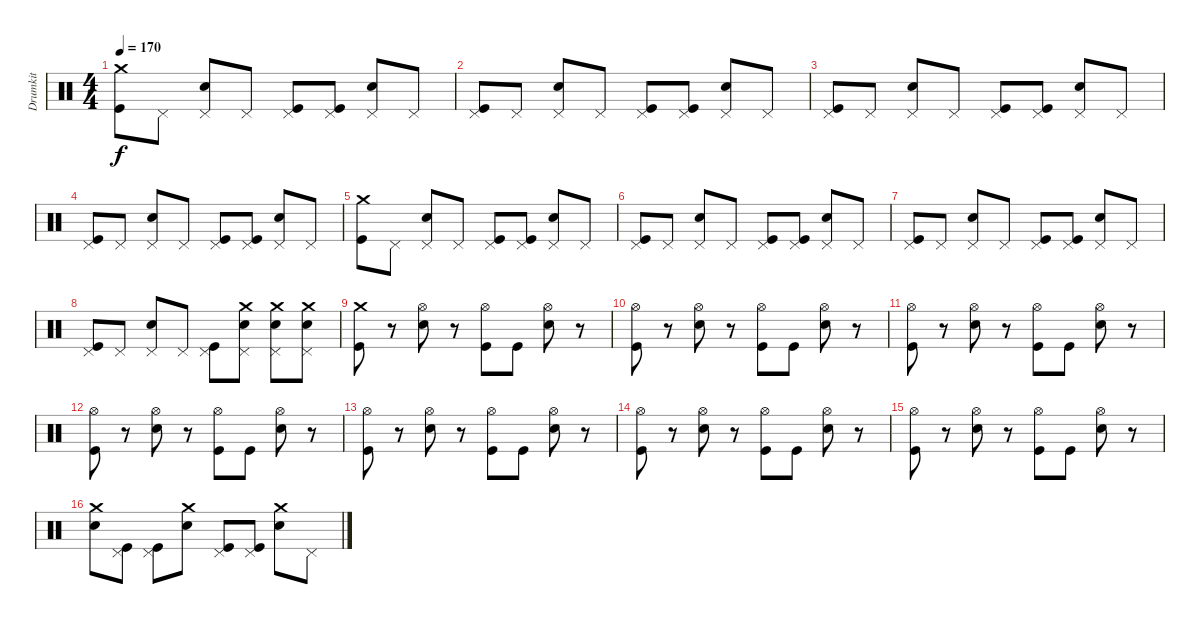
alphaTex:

\track ("Drumkit" "Drumkit") {instrument percussion}
\staff {score}
\articulation defaults
\ts (4 4)
\tempo 170
\clef neutral
\ks c
("Crash medium (hit)" "Kick (hit)").8{dy f} "Pedal Hi-Hat (hit)".8 ("Pedal Hi-Hat (hit)" "Snare (hit) 2").8 "Pedal Hi-Hat (hit)".8 ("Pedal Hi-Hat (hit)" "Kick (hit)").8 ("Pedal Hi-Hat (hit)" "Kick (hit)").8 ("Pedal Hi-Hat (hit)" "Snare (hit) 2").8 "Pedal Hi-Hat (hit)".8 |
("Pedal Hi-Hat (hit)" "Kick (hit)").8 "Pedal Hi-Hat (hit)".8 ("Pedal Hi-Hat (hit)" "Snare (hit) 2").8 "Pedal Hi-Hat (hit)".8 ("Pedal Hi-Hat (hit)" "Kick (hit)").8 ("Pedal Hi-Hat (hit)" "Kick (hit)").8 ("Pedal Hi-Hat (hit)" "Snare (hit) 2").8 "Pedal Hi-Hat (hit)".8 |
("Pedal Hi-Hat (hit)" "Kick (hit)").8 "Pedal Hi-Hat (hit)".8 ("Pedal Hi-Hat (hit)" "Snare (hit) 2").8 "Pedal Hi-Hat (hit)".8 ("Pedal Hi-Hat (hit)" "Kick (hit)").8 ("Pedal Hi-Hat (hit)" "Kick (hit)").8 ("Pedal Hi-Hat (hit)" "Snare (hit) 2").8 "Pedal Hi-Hat (hit)".8 |
("Pedal Hi-Hat (hit)" "Kick (hit)").8 "Pedal Hi-Hat (hit)".8 ("Pedal Hi-Hat (hit)" "Snare (hit) 2").8 "Pedal Hi-Hat (hit)".8 ("Pedal Hi-Hat (hit)" "Kick (hit)").8 ("Pedal Hi-Hat (hit)" "Kick (hit)").8 ("Pedal Hi-Hat (hit)" "Snare (hit) 2").8 "Pedal Hi-Hat (hit)".8 |
("Crash medium (hit)" "Kick (hit)").8 "Pedal Hi-Hat (hit)".8 ("Pedal Hi-Hat (hit)" "Snare (hit) 2").8 "Pedal Hi-Hat (hit)".8 ("Pedal Hi-Hat (hit)" "Kick (hit)").8 ("Pedal Hi-Hat (hit)" "Kick (hit)").8 ("Pedal Hi-Hat (hit)" "Snare (hit) 2").8 "Pedal Hi-Hat (hit)".8 |
("Pedal Hi-Hat (hit)" "Kick (hit)").8 "Pedal Hi-Hat (hit)".8 ("Pedal Hi-Hat (hit)" "Snare (hit) 2").8 "Pedal Hi-Hat (hit)".8 ("Pedal Hi-Hat (hit)" "Kick (hit)").8 ("Pedal Hi-Hat (hit)" "Kick (hit)").8 ("Pedal Hi-Hat (hit)" "Snare (hit) 2").8 "Pedal Hi-Hat (hit)".8 |
("Pedal Hi-Hat (hit)" "Kick (hit)").8 "Pedal Hi-Hat (hit)".8 ("Pedal Hi-Hat (hit)" "Snare (hit) 2").8 "Pedal Hi-Hat (hit)".8 ("Pedal Hi-Hat (hit)" "Kick (hit)").8 ("Pedal Hi-Hat (hit)" "Kick (hit)").8 ("Pedal Hi-Hat (hit)" "Snare (hit) 2").8 "Pedal Hi-Hat (hit)".8 |
("Pedal Hi-Hat (hit)" "Kick (hit)").8 "Pedal Hi-Hat (hit)".8 ("Pedal Hi-Hat (hit)" "Snare (hit) 2").8 "Pedal Hi-Hat (hit)".8 ("Pedal Hi-Hat (hit)" "Kick (hit)").8 ("Pedal Hi-Hat (hit)" "Crash medium (hit)" "Snare (hit) 2").8 ("Pedal Hi-Hat (hit)" "Crash medium (hit)" "Snare (hit) 2").8 ("Pedal Hi-Hat (hit)" "Crash medium (hit)" "Snare (hit) 2").8 |
("Crash medium (hit)" "Kick (hit)").8 r.8 ("Hi-Hat (open)" "Snare (hit) 2").8 r.8 ("Hi-Hat (open)" "Kick (hit)").8 "Kick (hit)".8 ("Hi-Hat (open)" "Snare (hit) 2").8 r.8 |
("Hi-Hat (open)" "Kick (hit)").8 r.8 ("Hi-Hat (open)" "Snare (hit) 2").8 r.8 ("Hi-Hat (open)" "Kick (hit)").8 "Kick (hit)".8 ("Hi-Hat (open)" "Snare (hit) 2").8 r.8 |
("Hi-Hat (open)" "Kick (hit)").8 r.8 ("Hi-Hat (open)" "Snare (hit) 2").8 r.8 ("Hi-Hat (open)" "Kick (hit)").8 "Kick (hit)".8 ("Hi-Hat (open)" "Snare (hit) 2").8 r.8 |
("Hi-Hat (open)" "Kick (hit)").8 r.8 ("Hi-Hat (open)" "Snare (hit) 2").8 r.8 ("Hi-Hat (open)" "Kick (hit)").8 "Kick (hit)".8 ("Hi-Hat (open)" "Snare (hit) 2").8 r.8 |
("Hi-Hat (open)" "Kick (hit)").8 r.8 ("Hi-Hat (open)" "Snare (hit) 2").8 r.8 ("Hi-Hat (open)" "Kick (hit)").8 "Kick (hit)".8 ("Hi-Hat (open)" "Snare (hit) 2").8 r.8 |
("Hi-Hat (open)" "Kick (hit)").8 r.8 ("Hi-Hat (open)" "Snare (hit) 2").8 r.8 ("Hi-Hat (open)" "Kick (hit)").8 "Kick (hit)".8 ("Hi-Hat (open)" "Snare (hit) 2").8 r.8 |
("Hi-Hat (open)" "Kick (hit)").8 r.8 ("Hi-Hat (open)" "Snare (hit) 2").8 r.8 ("Hi-Hat (open)" "Kick (hit)").8 "Kick (hit)".8 ("Hi-Hat (open)" "Snare (hit) 2").8 r.8 |
("Crash medium (hit)" "Snare (hit) 2").8 ("Pedal Hi-Hat (hit)" "Kick (hit)").8 ("Pedal Hi-Hat (hit)" "Kick (hit)").8 ("Crash medium (hit)" "Snare (hit) 2").8 ("Pedal Hi-Hat (hit)" "Kick (hit)").8 ("Pedal Hi-Hat (hit)" "Kick (hit)").8 ("Crash medium (hit)" "Snare (hit) 2").8 "Pedal Hi-Hat (hit)".8
